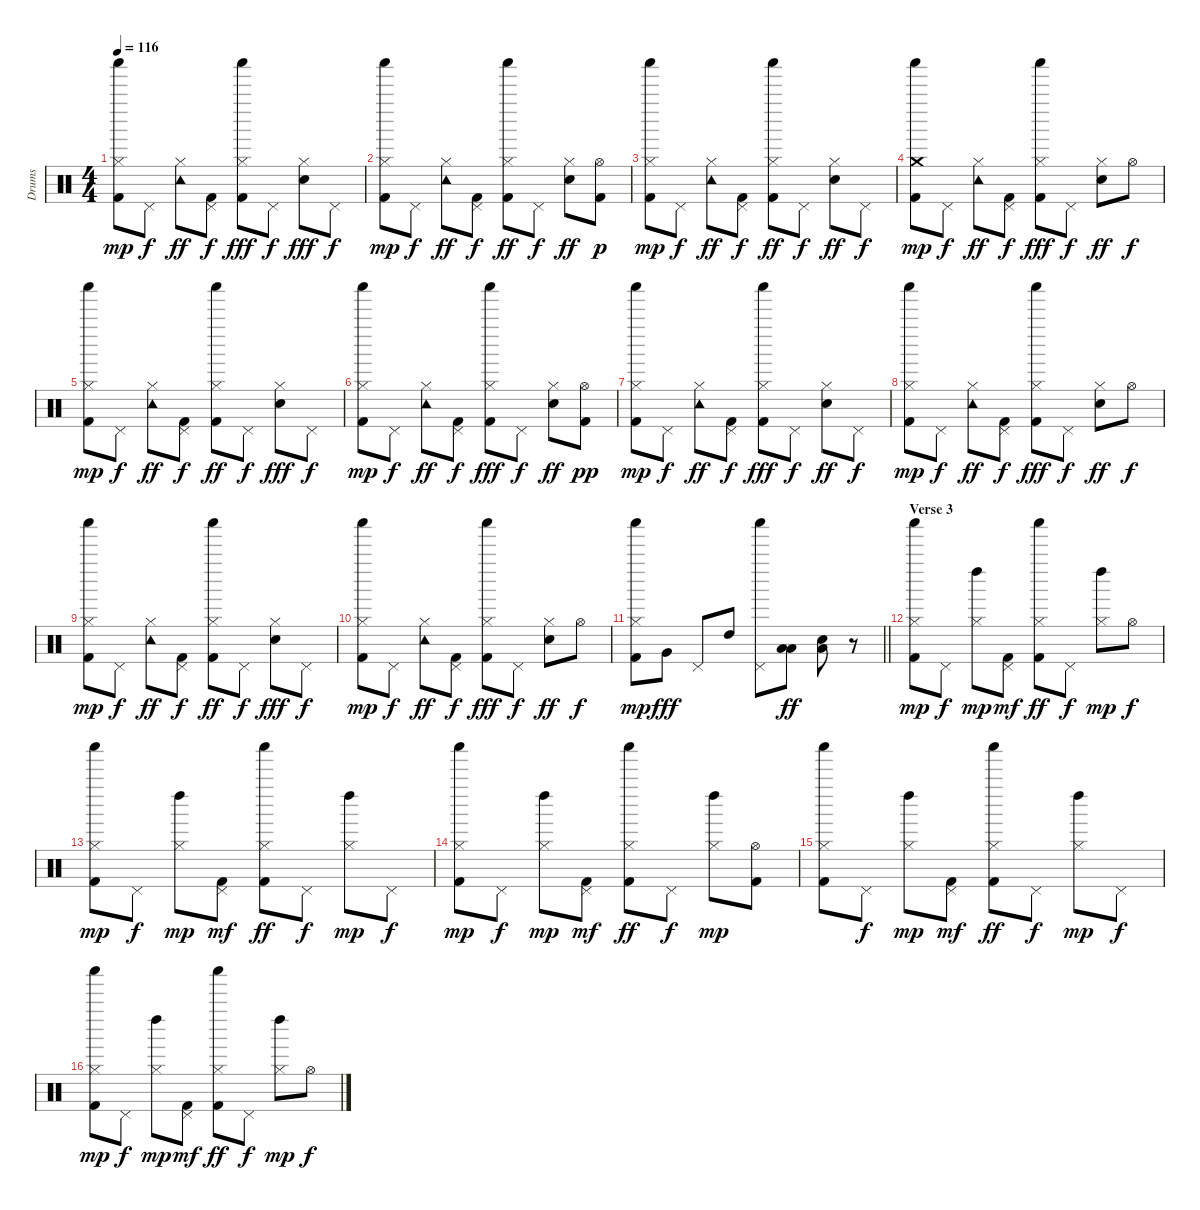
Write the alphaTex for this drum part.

\track ("Drums" "Drums") {instrument percussion}
\staff {score}
\articulation defaults
\ts (4 4)
\tempo 116
\clef neutral
\ks c
("Kick (hit) 2" "Hi-Hat (closed)" "Shaker (hit)").8{dy mp} "Pedal Hi-Hat (hit)".8{dy f} ("Hi-Hat (closed)" "Tambourine (hit)").8{dy ff} ("Pedal Hi-Hat (hit)" "Kick (hit) 2").8{dy f} ("Kick (hit) 2" "Shaker (hit)" "Hi-Hat (closed)").8{dy fff} "Pedal Hi-Hat (hit)".8{dy f} ("Hi-Hat (closed)" "Snare (hit) 2").8{dy fff} "Pedal Hi-Hat (hit)".8{dy f} |
("Kick (hit) 2" "Hi-Hat (closed)" "Shaker (hit)").8{dy mp} "Pedal Hi-Hat (hit)".8{dy f} ("Hi-Hat (closed)" "Tambourine (hit)").8{dy ff} ("Pedal Hi-Hat (hit)" "Kick (hit) 2").8{dy f} ("Kick (hit) 2" "Shaker (hit)" "Hi-Hat (closed)").8{dy ff} "Pedal Hi-Hat (hit)".8{dy f} ("Hi-Hat (closed)" "Snare (hit) 2").8{dy ff} ("Kick (hit) 2" "Hi-Hat (open)").8{dy p} |
("Kick (hit) 2" "Hi-Hat (closed)" "Shaker (hit)").8{dy mp} "Pedal Hi-Hat (hit)".8{dy f} ("Hi-Hat (closed)" "Tambourine (hit)").8{dy ff} ("Pedal Hi-Hat (hit)" "Kick (hit) 2").8{dy f} ("Kick (hit) 2" "Shaker (hit)" "Hi-Hat (closed)").8{dy ff} "Pedal Hi-Hat (hit)".8{dy f} ("Snare (hit) 2" "Hi-Hat (closed)").8{dy ff} "Pedal Hi-Hat (hit)".8{dy f} |
("Kick (hit) 2" "Crash medium (hit)" "Shaker (hit)").8{dy mp} "Pedal Hi-Hat (hit)".8{dy f} ("Hi-Hat (closed)" "Tambourine (hit)").8{dy ff} ("Pedal Hi-Hat (hit)" "Kick (hit) 2").8{dy f} ("Kick (hit) 2" "Shaker (hit)" "Hi-Hat (closed)").8{dy fff} "Pedal Hi-Hat (hit)".8{dy f} ("Snare (hit) 2" "Hi-Hat (closed)").8{dy ff} "Hi-Hat (open)".8{dy f} |
("Kick (hit) 2" "Hi-Hat (closed)" "Shaker (hit)").8{dy mp} "Pedal Hi-Hat (hit)".8{dy f} ("Hi-Hat (closed)" "Tambourine (hit)").8{dy ff} ("Pedal Hi-Hat (hit)" "Kick (hit) 2").8{dy f} ("Kick (hit) 2" "Shaker (hit)" "Hi-Hat (closed)").8{dy ff} "Pedal Hi-Hat (hit)".8{dy f} ("Hi-Hat (closed)" "Snare (hit) 2").8{dy fff} "Pedal Hi-Hat (hit)".8{dy f} |
("Kick (hit) 2" "Hi-Hat (closed)" "Shaker (hit)").8{dy mp} "Pedal Hi-Hat (hit)".8{dy f} ("Hi-Hat (closed)" "Tambourine (hit)").8{dy ff} ("Pedal Hi-Hat (hit)" "Kick (hit) 2").8{dy f} ("Kick (hit) 2" "Shaker (hit)" "Hi-Hat (closed)").8{dy fff} "Pedal Hi-Hat (hit)".8{dy f} ("Hi-Hat (closed)" "Snare (hit) 2").8{dy ff} ("Kick (hit) 2" "Hi-Hat (open)").8{dy pp} |
("Kick (hit) 2" "Hi-Hat (closed)" "Shaker (hit)").8{dy mp} "Pedal Hi-Hat (hit)".8{dy f} ("Hi-Hat (closed)" "Tambourine (hit)").8{dy ff} ("Pedal Hi-Hat (hit)" "Kick (hit) 2").8{dy f} ("Kick (hit) 2" "Shaker (hit)" "Hi-Hat (closed)").8{dy fff} "Pedal Hi-Hat (hit)".8{dy f} ("Snare (hit) 2" "Hi-Hat (closed)").8{dy ff} "Pedal Hi-Hat (hit)".8{dy f} |
("Kick (hit) 2" "Hi-Hat (closed)" "Shaker (hit)").8{dy mp} "Pedal Hi-Hat (hit)".8{dy f} ("Hi-Hat (closed)" "Tambourine (hit)").8{dy ff} ("Pedal Hi-Hat (hit)" "Kick (hit) 2").8{dy f} ("Kick (hit) 2" "Shaker (hit)" "Hi-Hat (closed)").8{dy fff} "Pedal Hi-Hat (hit)".8{dy f} ("Snare (hit) 2" "Hi-Hat (closed)").8{dy ff} "Hi-Hat (open)".8{dy f} |
("Kick (hit) 2" "Hi-Hat (closed)" "Shaker (hit)").8{dy mp} "Pedal Hi-Hat (hit)".8{dy f} ("Hi-Hat (closed)" "Tambourine (hit)").8{dy ff} ("Pedal Hi-Hat (hit)" "Kick (hit) 2").8{dy f} ("Kick (hit) 2" "Shaker (hit)" "Hi-Hat (closed)").8{dy ff} "Pedal Hi-Hat (hit)".8{dy f} ("Hi-Hat (closed)" "Snare (hit) 2").8{dy fff} "Pedal Hi-Hat (hit)".8{dy f} |
("Kick (hit) 2" "Hi-Hat (closed)" "Shaker (hit)").8{dy mp} "Pedal Hi-Hat (hit)".8{dy f} ("Hi-Hat (closed)" "Tambourine (hit)").8{dy ff} ("Pedal Hi-Hat (hit)" "Kick (hit) 2").8{dy f} ("Kick (hit) 2" "Shaker (hit)" "Hi-Hat (closed)").8{dy fff} "Pedal Hi-Hat (hit)".8{dy f} ("Hi-Hat (closed)" "Snare (hit) 2").8{dy ff} "Hi-Hat (open)".8{dy f} |
\barLineRight lightlight
("Kick (hit) 2" "Hi-Hat (closed)" "Shaker (hit)").8{dy mp} "Very Low Tom (hit)".8{dy fff} "Pedal Hi-Hat (hit)".8 "High Tom (hit)".8 ("Shaker (hit)" "Pedal Hi-Hat (hit)").8 ("Low Tom (hit)" "Low Tom (hit)").8{dy ff} ("Snare (hit) 2" "Low Floor Tom (hit)").8 r.8 |
\section ("" "Verse 3")
("Kick (hit) 2" "Hi-Hat (closed)" "Shaker (hit)").8{dy mp} "Pedal Hi-Hat (hit)".8{dy f} ("Hi-Hat (closed)" "Left Maraca (hit)").8{dy mp} ("Pedal Hi-Hat (hit)" "Kick (hit) 2").8{dy mf} ("Kick (hit) 2" "Shaker (hit)" "Hi-Hat (closed)").8{dy ff} "Pedal Hi-Hat (hit)".8{dy f} ("Hi-Hat (closed)" "Left Maraca (hit)").8{dy mp} "Hi-Hat (open)".8{dy f} |
("Kick (hit) 2" "Hi-Hat (closed)" "Shaker (hit)").8{dy mp} "Pedal Hi-Hat (hit)".8{dy f} ("Hi-Hat (closed)" "Left Maraca (hit)").8{dy mp} ("Pedal Hi-Hat (hit)" "Kick (hit) 2").8{dy mf} ("Kick (hit) 2" "Shaker (hit)" "Hi-Hat (closed)").8{dy ff} "Pedal Hi-Hat (hit)".8{dy f} ("Hi-Hat (closed)" "Left Maraca (hit)").8{dy mp} "Pedal Hi-Hat (hit)".8{dy f} |
("Kick (hit) 2" "Hi-Hat (closed)" "Shaker (hit)").8{dy mp} "Pedal Hi-Hat (hit)".8{dy f} ("Hi-Hat (closed)" "Left Maraca (hit)").8{dy mp} ("Pedal Hi-Hat (hit)" "Kick (hit) 2").8{dy mf} ("Kick (hit) 2" "Shaker (hit)" "Hi-Hat (closed)").8{dy ff} "Pedal Hi-Hat (hit)".8{dy f} ("Hi-Hat (closed)" "Left Maraca (hit)").8{dy mp} ("Kick (hit) 2" "Hi-Hat (open)").8 |
("Kick (hit) 2" "Hi-Hat (closed)" "Shaker (hit)").8 "Pedal Hi-Hat (hit)".8{dy f} ("Hi-Hat (closed)" "Left Maraca (hit)").8{dy mp} ("Pedal Hi-Hat (hit)" "Kick (hit) 2").8{dy mf} ("Kick (hit) 2" "Shaker (hit)" "Hi-Hat (closed)").8{dy ff} "Pedal Hi-Hat (hit)".8{dy f} ("Hi-Hat (closed)" "Left Maraca (hit)").8{dy mp} "Pedal Hi-Hat (hit)".8{dy f} |
("Kick (hit) 2" "Hi-Hat (closed)" "Shaker (hit)").8{dy mp} "Pedal Hi-Hat (hit)".8{dy f} ("Hi-Hat (closed)" "Left Maraca (hit)").8{dy mp} ("Pedal Hi-Hat (hit)" "Kick (hit) 2").8{dy mf} ("Kick (hit) 2" "Shaker (hit)" "Hi-Hat (closed)").8{dy ff} "Pedal Hi-Hat (hit)".8{dy f} ("Hi-Hat (closed)" "Left Maraca (hit)").8{dy mp} "Hi-Hat (open)".8{dy f}
